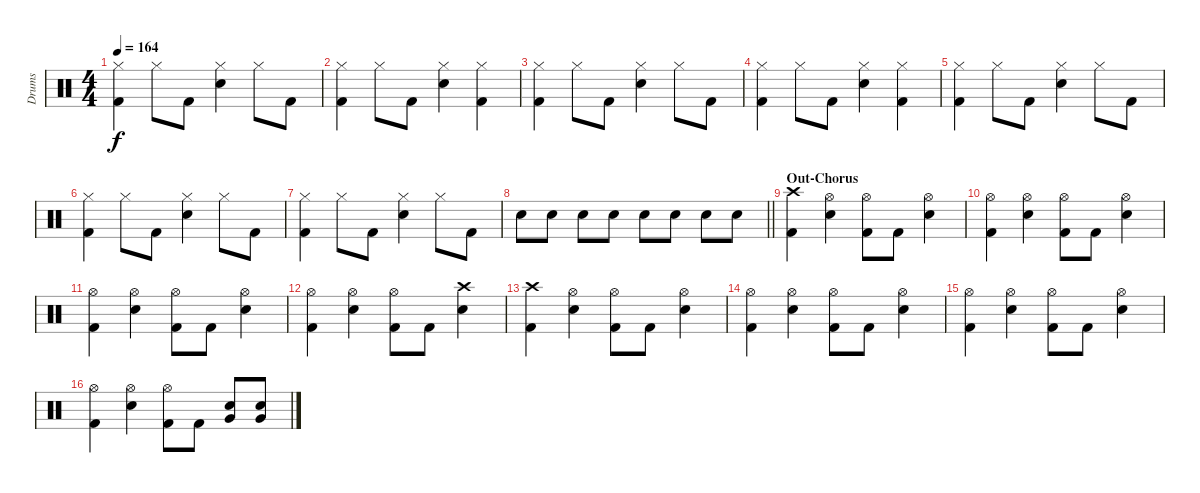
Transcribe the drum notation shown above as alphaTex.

\track ("Drums" "Drums") {instrument percussion}
\staff {score}
\articulation defaults
\ts (4 4)
\tempo 164
\clef neutral
\ks c
("Hi-Hat (closed)" "Kick (hit) 2").4{dy f} "Hi-Hat (closed)".8 "Kick (hit) 2".8 ("Hi-Hat (closed)" "Snare (hit) 2").4 "Hi-Hat (closed)".8 "Kick (hit) 2".8 |
("Hi-Hat (closed)" "Kick (hit) 2").4 "Hi-Hat (closed)".8 "Kick (hit) 2".8 ("Hi-Hat (closed)" "Snare (hit) 2").4 ("Hi-Hat (closed)" "Kick (hit) 2").4 |
("Hi-Hat (closed)" "Kick (hit) 2").4 "Hi-Hat (closed)".8 "Kick (hit) 2".8 ("Hi-Hat (closed)" "Snare (hit) 2").4 "Hi-Hat (closed)".8 "Kick (hit) 2".8 |
("Hi-Hat (closed)" "Kick (hit) 2").4 "Hi-Hat (closed)".8 "Kick (hit) 2".8 ("Hi-Hat (closed)" "Snare (hit) 2").4 ("Hi-Hat (closed)" "Kick (hit) 2").4 |
("Hi-Hat (closed)" "Kick (hit) 2").4 "Hi-Hat (closed)".8 "Kick (hit) 2".8 ("Hi-Hat (closed)" "Snare (hit) 2").4 "Hi-Hat (closed)".8 "Kick (hit) 2".8 |
("Hi-Hat (closed)" "Kick (hit) 2").4 "Hi-Hat (closed)".8 "Kick (hit) 2".8 ("Hi-Hat (closed)" "Snare (hit) 2").4 "Hi-Hat (closed)".8 "Kick (hit) 2".8 |
("Hi-Hat (closed)" "Kick (hit) 2").4 "Hi-Hat (closed)".8 "Kick (hit) 2".8 ("Hi-Hat (closed)" "Snare (hit) 2").4 "Hi-Hat (closed)".8 "Kick (hit) 2".8 |
\barLineRight lightlight "Snare (hit) 2".8{volume 4} "Snare (hit) 2".8 "Snare (hit) 2".8{volume 13} "Snare (hit) 2".8 "Snare (hit) 2".8 "Snare (hit) 2".8 "Snare (hit) 2".8 "Snare (hit) 2".8
|
\section ("" "Out-Chorus")
("Crash high (hit)" "Kick (hit) 2").4 ("Hi-Hat (open)" "Snare (hit) 2").4 ("Hi-Hat (open)" "Kick (hit) 2").8 "Kick (hit) 2".8 ("Hi-Hat (open)" "Snare (hit) 2").4 |
("Hi-Hat (open)" "Kick (hit) 2").4 ("Hi-Hat (open)" "Snare (hit) 2").4 ("Hi-Hat (open)" "Kick (hit) 2").8 "Kick (hit) 2".8 ("Hi-Hat (open)" "Snare (hit) 2").4 |
("Hi-Hat (open)" "Kick (hit) 2").4 ("Hi-Hat (open)" "Snare (hit) 2").4 ("Hi-Hat (open)" "Kick (hit) 2").8 "Kick (hit) 2".8 ("Hi-Hat (open)" "Snare (hit) 2").4 |
("Hi-Hat (open)" "Kick (hit) 2").4 ("Hi-Hat (open)" "Snare (hit) 2").4 ("Hi-Hat (open)" "Kick (hit) 2").8 "Kick (hit) 2".8 ("Crash high (hit)" "Snare (hit) 2").4 |
("Crash high (hit)" "Kick (hit) 2").4 ("Hi-Hat (open)" "Snare (hit) 2").4 ("Hi-Hat (open)" "Kick (hit) 2").8 "Kick (hit) 2".8 ("Hi-Hat (open)" "Snare (hit) 2").4 |
("Hi-Hat (open)" "Kick (hit) 2").4 ("Hi-Hat (open)" "Snare (hit) 2").4 ("Hi-Hat (open)" "Kick (hit) 2").8 "Kick (hit) 2".8 ("Hi-Hat (open)" "Snare (hit) 2").4 |
("Hi-Hat (open)" "Kick (hit) 2").4 ("Hi-Hat (open)" "Snare (hit) 2").4 ("Hi-Hat (open)" "Kick (hit) 2").8 "Kick (hit) 2".8 ("Hi-Hat (open)" "Snare (hit) 2").4 |
("Hi-Hat (open)" "Kick (hit) 2").4 ("Hi-Hat (open)" "Snare (hit) 2").4 ("Hi-Hat (open)" "Kick (hit) 2").8 "Kick (hit) 2".8 ("Very Low Tom (hit)" "Snare (hit) 2").8 ("Very Low Tom (hit)" "Snare (hit) 2").8
